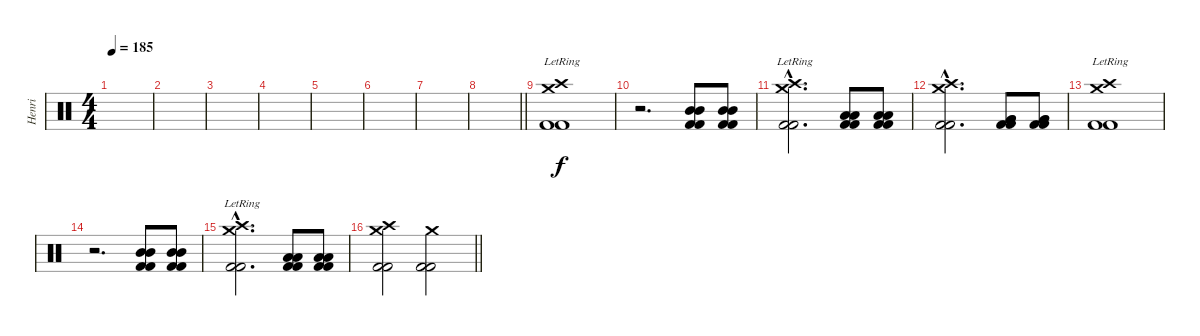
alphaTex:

\track ("Henri" "Henri") {instrument percussion}
\staff {score}
\articulation defaults
\ts (4 4)
\tempo 185
\clef neutral
\ks c
|
|
|
|
|
|
|
\barLineRight lightlight
|
("Crash high (hit)"{lr} "Crash medium (hit)"{lr} "Kick (hit) 2" "Kick (hit) 2").1 |
r.2{d} ("Mid Tom (hit)" "Mid Tom (hit)" "Kick (hit) 2" "Kick (hit) 2").8 ("Mid Tom (hit)" "Mid Tom (hit)" "Kick (hit) 2" "Kick (hit) 2").8 |
("Crash high (hit)"{hac lr} "Crash medium (hit)"{hac lr} "Kick (hit) 2"{hac} "Kick (hit) 2"{hac}).2{d} ("Low Tom (hit)" "Low Tom (hit)" "Kick (hit) 2" "Kick (hit) 2").8 ("Low Tom (hit)" "Low Tom (hit)" "Kick (hit) 2" "Kick (hit) 2").8 |
("Crash high (hit)"{hac} "Crash medium (hit)"{hac} "Kick (hit) 2"{hac} "Kick (hit) 2"{hac}).2{d} ("Very Low Tom (hit)" "Very Low Tom (hit)" "Kick (hit) 2" "Kick (hit) 2").8 ("Very Low Tom (hit)" "Very Low Tom (hit)" "Kick (hit) 2" "Kick (hit) 2").8 |
("Crash high (hit)"{lr} "Crash medium (hit)"{lr} "Kick (hit) 2" "Kick (hit) 2").1 |
r.2{d} ("Mid Tom (hit)" "Mid Tom (hit)" "Kick (hit) 2" "Kick (hit) 2").8 ("Mid Tom (hit)" "Mid Tom (hit)" "Kick (hit) 2" "Kick (hit) 2").8 |
("Crash high (hit)"{hac lr} "Crash medium (hit)"{hac lr} "Kick (hit) 2"{hac} "Kick (hit) 2"{hac}).2{d} ("Low Tom (hit)" "Low Tom (hit)" "Kick (hit) 2" "Kick (hit) 2").8 ("Low Tom (hit)" "Low Tom (hit)" "Kick (hit) 2" "Kick (hit) 2").8 |
\barLineRight lightlight
("Crash high (hit)" "Crash medium (hit)" "Kick (hit) 2" "Kick (hit) 2").2 ("Crash medium (hit)" "Kick (hit) 2" "Kick (hit) 2").2
